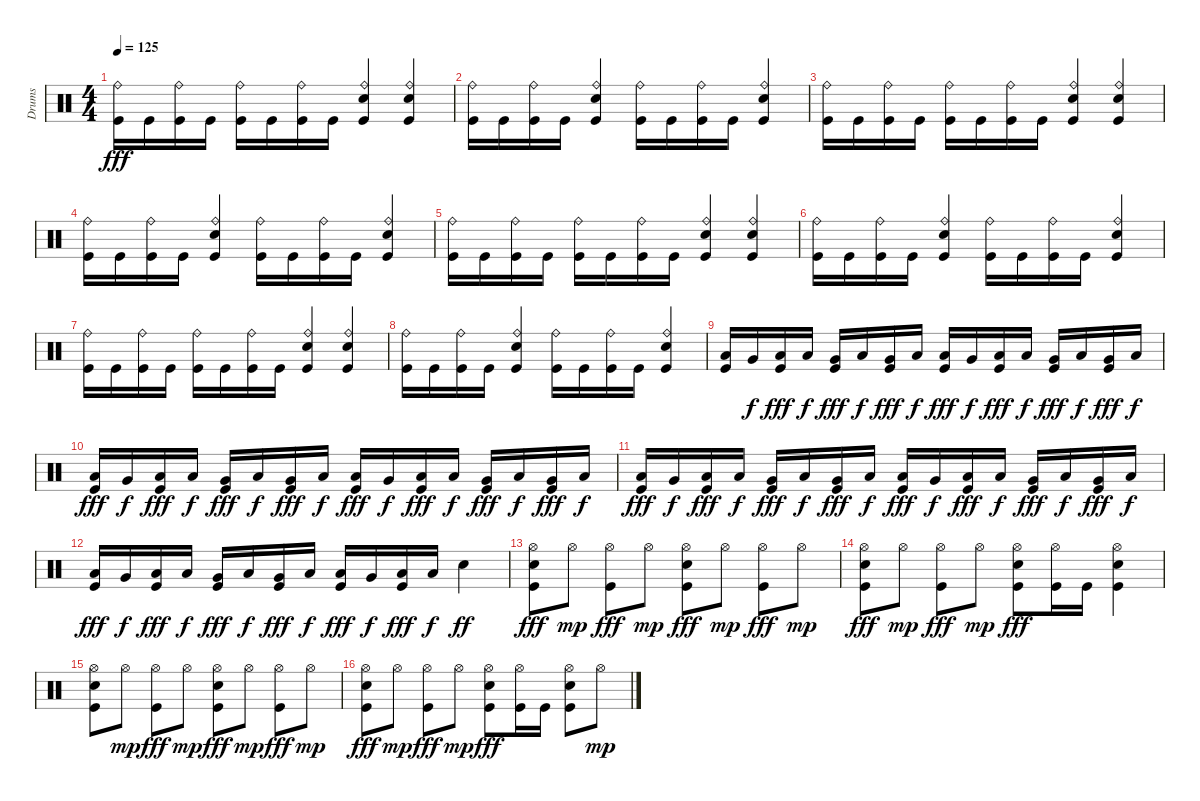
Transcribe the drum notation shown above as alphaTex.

\track ("Drums" "Drums") {instrument percussion}
\staff {score}
\articulation defaults
\ts (4 4)
\tempo 125
\clef neutral
\ks c
("Kick (hit)" "Ride (bell)").16{dy fff} "Kick (hit)".16 ("Kick (hit)" "Ride (bell)").16 "Kick (hit)".16 ("Kick (hit)" "Ride (bell)").16 "Kick (hit)".16 ("Kick (hit)" "Ride (bell)").16 "Kick (hit)".16 ("Kick (hit)" "Snare (hit) 2" "Ride (bell)").4 ("Kick (hit)" "Snare (hit) 2" "Ride (bell)").4 |
("Kick (hit)" "Ride (bell)").16 "Kick (hit)".16 ("Kick (hit)" "Ride (bell)").16 "Kick (hit)".16 ("Kick (hit)" "Snare (hit) 2" "Ride (bell)").4 ("Kick (hit)" "Ride (bell)").16 "Kick (hit)".16 ("Kick (hit)" "Ride (bell)").16 "Kick (hit)".16 ("Kick (hit)" "Snare (hit) 2" "Ride (bell)").4 |
("Kick (hit)" "Ride (bell)").16 "Kick (hit)".16 ("Kick (hit)" "Ride (bell)").16 "Kick (hit)".16 ("Kick (hit)" "Ride (bell)").16 "Kick (hit)".16 ("Kick (hit)" "Ride (bell)").16 "Kick (hit)".16 ("Kick (hit)" "Snare (hit) 2" "Ride (bell)").4 ("Kick (hit)" "Snare (hit) 2" "Ride (bell)").4 |
("Kick (hit)" "Ride (bell)").16 "Kick (hit)".16 ("Kick (hit)" "Ride (bell)").16 "Kick (hit)".16 ("Kick (hit)" "Snare (hit) 2" "Ride (bell)").4 ("Kick (hit)" "Ride (bell)").16 "Kick (hit)".16 ("Kick (hit)" "Ride (bell)").16 "Kick (hit)".16 ("Kick (hit)" "Snare (hit) 2" "Ride (bell)").4 |
("Kick (hit)" "Ride (bell)").16 "Kick (hit)".16 ("Kick (hit)" "Ride (bell)").16 "Kick (hit)".16 ("Kick (hit)" "Ride (bell)").16 "Kick (hit)".16 ("Kick (hit)" "Ride (bell)").16 "Kick (hit)".16 ("Kick (hit)" "Snare (hit) 2" "Ride (bell)").4 ("Kick (hit)" "Snare (hit) 2" "Ride (bell)").4 |
("Kick (hit)" "Ride (bell)").16 "Kick (hit)".16 ("Kick (hit)" "Ride (bell)").16 "Kick (hit)".16 ("Kick (hit)" "Snare (hit) 2" "Ride (bell)").4 ("Kick (hit)" "Ride (bell)").16 "Kick (hit)".16 ("Kick (hit)" "Ride (bell)").16 "Kick (hit)".16 ("Kick (hit)" "Snare (hit) 2" "Ride (bell)").4 |
("Kick (hit)" "Ride (bell)").16 "Kick (hit)".16 ("Kick (hit)" "Ride (bell)").16 "Kick (hit)".16 ("Kick (hit)" "Ride (bell)").16 "Kick (hit)".16 ("Kick (hit)" "Ride (bell)").16 "Kick (hit)".16 ("Kick (hit)" "Snare (hit) 2" "Ride (bell)").4 ("Kick (hit)" "Snare (hit) 2" "Ride (bell)").4 |
("Kick (hit)" "Ride (bell)").16 "Kick (hit)".16 ("Kick (hit)" "Ride (bell)").16 "Kick (hit)".16 ("Kick (hit)" "Snare (hit) 2" "Ride (bell)").4 ("Kick (hit)" "Ride (bell)").16 "Kick (hit)".16 ("Kick (hit)" "Ride (bell)").16 "Kick (hit)".16 ("Kick (hit)" "Snare (hit) 2" "Ride (bell)").4 |
("Kick (hit)" "Low Tom (hit)").16 "Very Low Tom (hit)".16{dy f} ("Kick (hit)" "Low Floor Tom (hit)").16{dy fff} "Low Tom (hit)".16{dy f} ("Kick (hit)" "Very Low Tom (hit)").16{dy fff} "Low Tom (hit)".16{dy f} ("Kick (hit)" "Very Low Tom (hit)").16{dy fff} "Low Floor Tom (hit)".16{dy f} ("Kick (hit)" "Low Tom (hit)").16{dy fff} "Very Low Tom (hit)".16{dy f} ("Kick (hit)" "Low Floor Tom (hit)").16{dy fff} "Low Tom (hit)".16{dy f} ("Kick (hit)" "Very Low Tom (hit)").16{dy fff} "Low Tom (hit)".16{dy f} ("Kick (hit)" "Very Low Tom (hit)").16{dy fff} "Low Floor Tom (hit)".16{dy f} |
("Kick (hit)" "Low Tom (hit)").16{dy fff} "Very Low Tom (hit)".16{dy f} ("Kick (hit)" "Low Floor Tom (hit)").16{dy fff} "Low Tom (hit)".16{dy f} ("Kick (hit)" "Very Low Tom (hit)").16{dy fff} "Low Tom (hit)".16{dy f} ("Kick (hit)" "Very Low Tom (hit)").16{dy fff} "Low Floor Tom (hit)".16{dy f} ("Kick (hit)" "Low Tom (hit)").16{dy fff} "Very Low Tom (hit)".16{dy f} ("Kick (hit)" "Low Floor Tom (hit)").16{dy fff} "Low Tom (hit)".16{dy f} ("Kick (hit)" "Very Low Tom (hit)").16{dy fff} "Low Tom (hit)".16{dy f} ("Kick (hit)" "Very Low Tom (hit)").16{dy fff} "Low Floor Tom (hit)".16{dy f} |
("Kick (hit)" "Low Tom (hit)").16{dy fff} "Very Low Tom (hit)".16{dy f} ("Kick (hit)" "Low Floor Tom (hit)").16{dy fff} "Low Tom (hit)".16{dy f} ("Kick (hit)" "Very Low Tom (hit)").16{dy fff} "Low Tom (hit)".16{dy f} ("Kick (hit)" "Very Low Tom (hit)").16{dy fff} "Low Floor Tom (hit)".16{dy f} ("Kick (hit)" "Low Tom (hit)").16{dy fff} "Very Low Tom (hit)".16{dy f} ("Kick (hit)" "Low Floor Tom (hit)").16{dy fff} "Low Tom (hit)".16{dy f} ("Kick (hit)" "Very Low Tom (hit)").16{dy fff} "Low Tom (hit)".16{dy f} ("Kick (hit)" "Very Low Tom (hit)").16{dy fff} "Low Floor Tom (hit)".16{dy f} |
("Kick (hit)" "Low Tom (hit)").16{dy fff} "Very Low Tom (hit)".16{dy f} ("Kick (hit)" "Low Floor Tom (hit)").16{dy fff} "Low Tom (hit)".16{dy f} ("Kick (hit)" "Very Low Tom (hit)").16{dy fff} "Low Tom (hit)".16{dy f} ("Kick (hit)" "Very Low Tom (hit)").16{dy fff} "Low Floor Tom (hit)".16{dy f} ("Kick (hit)" "Low Tom (hit)").16{dy fff} "Very Low Tom (hit)".16{dy f} ("Kick (hit)" "Low Floor Tom (hit)").16{dy fff} "Low Tom (hit)".16{dy f} "Electric Snare (hit)".4{dy ff} |
("Hi-Hat (open)" "Snare (hit) 2" "Kick (hit)").8{dy fff} "Hi-Hat (open)".8{dy mp} ("Hi-Hat (open)" "Kick (hit)").8{dy fff} "Hi-Hat (open)".8{dy mp} ("Hi-Hat (open)" "Snare (hit) 2" "Kick (hit)").8{dy fff} "Hi-Hat (open)".8{dy mp} ("Hi-Hat (open)" "Kick (hit)").8{dy fff} "Hi-Hat (open)".8{dy mp} |
("Hi-Hat (open)" "Snare (hit) 2" "Kick (hit)").8{dy fff} "Hi-Hat (open)".8{dy mp} ("Hi-Hat (open)" "Kick (hit)").8{dy fff} "Hi-Hat (open)".8{dy mp} ("Hi-Hat (open)" "Snare (hit) 2" "Kick (hit)").8{dy fff} ("Hi-Hat (open)" "Kick (hit)").16 "Kick (hit)".16 ("Hi-Hat (open)" "Electric Snare (hit)" "Kick (hit)").4 |
("Hi-Hat (open)" "Snare (hit) 2" "Kick (hit)").8 "Hi-Hat (open)".8{dy mp} ("Hi-Hat (open)" "Kick (hit)").8{dy fff} "Hi-Hat (open)".8{dy mp} ("Hi-Hat (open)" "Snare (hit) 2" "Kick (hit)").8{dy fff} "Hi-Hat (open)".8{dy mp} ("Hi-Hat (open)" "Kick (hit)").8{dy fff} "Hi-Hat (open)".8{dy mp} |
("Hi-Hat (open)" "Snare (hit) 2" "Kick (hit)").8{dy fff} "Hi-Hat (open)".8{dy mp} ("Hi-Hat (open)" "Kick (hit)").8{dy fff} "Hi-Hat (open)".8{dy mp} ("Hi-Hat (open)" "Snare (hit) 2" "Kick (hit)").8{dy fff} ("Hi-Hat (open)" "Kick (hit)").16 "Kick (hit)".16 ("Hi-Hat (open)" "Electric Snare (hit)" "Kick (hit)").8 "Hi-Hat (open)".8{dy mp}
